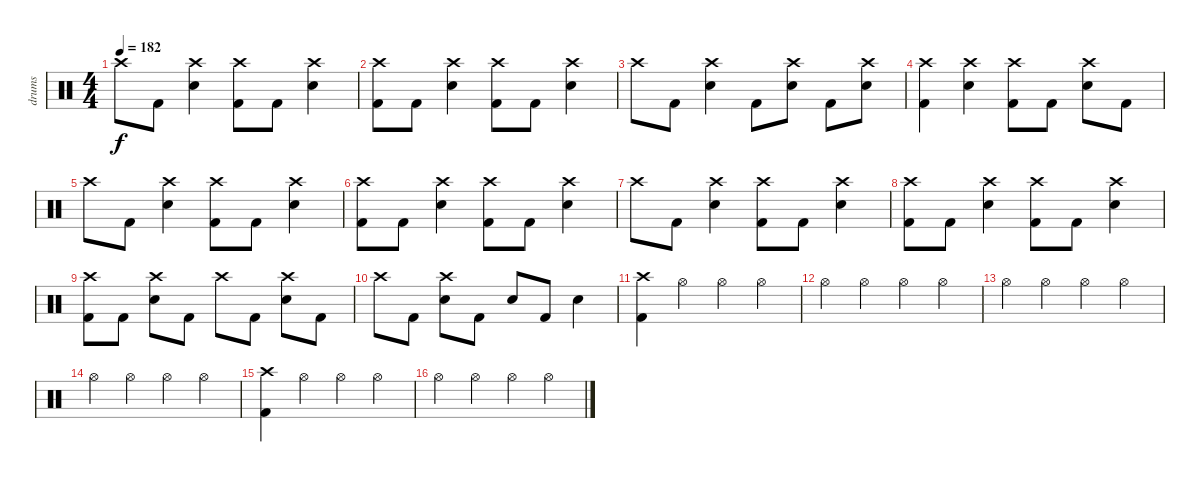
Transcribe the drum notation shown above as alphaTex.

\track ("drums" "drums") {instrument percussion}
\staff {score}
\articulation defaults
\ts (4 4)
\tempo 182
\clef neutral
\ks c "Crash high (hit)".8{dy f} "Kick (hit) 2".8
("Crash high (hit)" "Electric Snare (hit)").4 ("Crash high (hit)" "Kick (hit) 2").8 "Kick (hit) 2".8 ("Crash high (hit)" "Electric Snare (hit)").4 |
("Crash high (hit)" "Kick (hit) 2").8 "Kick (hit) 2".8 ("Crash high (hit)" "Electric Snare (hit)").4 ("Crash high (hit)" "Kick (hit) 2").8 "Kick (hit) 2".8 ("Crash high (hit)" "Electric Snare (hit)").4 |
"Crash high (hit)".8 "Kick (hit) 2".8 ("Crash high (hit)" "Electric Snare (hit)").4 "Kick (hit) 2".8 ("Crash high (hit)" "Electric Snare (hit)").8 "Kick (hit) 2".8 ("Crash high (hit)" "Electric Snare (hit)").8 |
("Crash high (hit)" "Kick (hit) 2").4 ("Crash high (hit)" "Electric Snare (hit)").4 ("Crash high (hit)" "Kick (hit) 2").8 "Kick (hit) 2".8 ("Crash high (hit)" "Electric Snare (hit)").8 "Kick (hit) 2".8 |
"Crash high (hit)".8 "Kick (hit) 2".8 ("Crash high (hit)" "Electric Snare (hit)").4 ("Crash high (hit)" "Kick (hit) 2").8 "Kick (hit) 2".8 ("Crash high (hit)" "Electric Snare (hit)").4 |
("Crash high (hit)" "Kick (hit) 2").8 "Kick (hit) 2".8 ("Crash high (hit)" "Electric Snare (hit)").4 ("Crash high (hit)" "Kick (hit) 2").8 "Kick (hit) 2".8 ("Crash high (hit)" "Electric Snare (hit)").4 |
"Crash high (hit)".8 "Kick (hit) 2".8 ("Crash high (hit)" "Electric Snare (hit)").4 ("Crash high (hit)" "Kick (hit) 2").8 "Kick (hit) 2".8 ("Crash high (hit)" "Electric Snare (hit)").4 |
("Crash high (hit)" "Kick (hit) 2").8 "Kick (hit) 2".8 ("Crash high (hit)" "Electric Snare (hit)").4 ("Crash high (hit)" "Kick (hit) 2").8 "Kick (hit) 2".8 ("Crash high (hit)" "Electric Snare (hit)").4 |
("Crash high (hit)" "Kick (hit) 2").8 "Kick (hit) 2".8 ("Crash high (hit)" "Electric Snare (hit)").8 "Kick (hit) 2".8 "Crash high (hit)".8 "Kick (hit) 2".8 ("Crash high (hit)" "Electric Snare (hit)").8 "Kick (hit) 2".8 |
"Crash high (hit)".8 "Kick (hit) 2".8 ("Crash high (hit)" "Electric Snare (hit)").8 "Kick (hit) 2".8 "Electric Snare (hit)".8 "Kick (hit) 2".8 "Electric Snare (hit)".4 |
("Crash high (hit)" "Kick (hit) 2").4 "Hi-Hat (open)".4 "Hi-Hat (open)".4 "Hi-Hat (open)".4 |
"Hi-Hat (open)".4 "Hi-Hat (open)".4 "Hi-Hat (open)".4 "Hi-Hat (open)".4 |
"Hi-Hat (open)".4 "Hi-Hat (open)".4 "Hi-Hat (open)".4 "Hi-Hat (open)".4 |
"Hi-Hat (open)".4 "Hi-Hat (open)".4 "Hi-Hat (open)".4 "Hi-Hat (open)".4 |
("Crash high (hit)" "Kick (hit) 2").4 "Hi-Hat (open)".4 "Hi-Hat (open)".4 "Hi-Hat (open)".4 |
"Hi-Hat (open)".4 "Hi-Hat (open)".4 "Hi-Hat (open)".4 "Hi-Hat (open)".4
